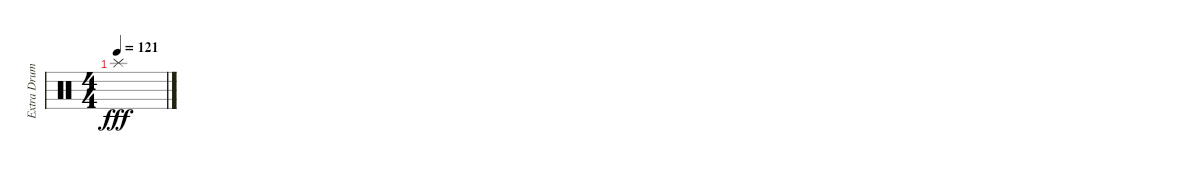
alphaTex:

\track ("Extra Drum" "Extra Drum") {instrument percussion}
\staff {score}
\articulation defaults
\ts (4 4)
\tempo 121
\clef neutral
\ks c "Splash (hit)".1{dy fff}
